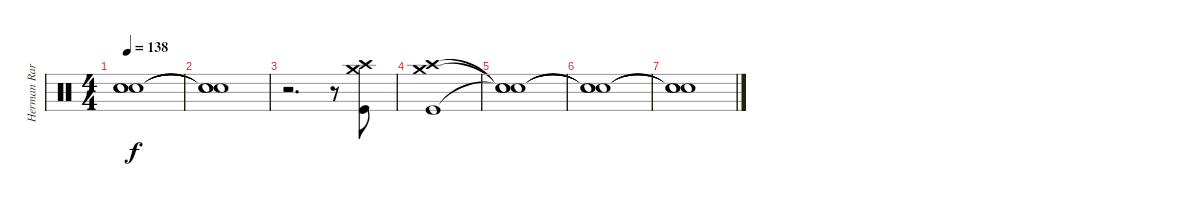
\track ("Herman Rarebell Drums" "Herman Rar") {instrument percussion}
\staff {score}
\articulation defaults
\ts (4 4)
\tempo 138
\clef neutral
\ks c
("Snare (hit)"{t} "Snare (hit)"{t} "Snare (hit)"{t}).1{dy f} |
("Snare (hit)"{t} "Snare (hit)"{t} "Snare (hit)"{t}).1 |
r.2{d} r.8 ("Crash high (hit)" "Crash medium (hit)" "Kick (hit)").8 |
("Crash high (hit)" "Crash medium (hit)" "Kick (hit)").1 |
("Snare (hit)"{t} "Snare (hit)"{t} "Snare (hit)"{t}).1 |
("Snare (hit)"{t} "Snare (hit)"{t} "Snare (hit)"{t}).1 |
("Snare (hit)"{t} "Snare (hit)"{t} "Snare (hit)"{t}).1
